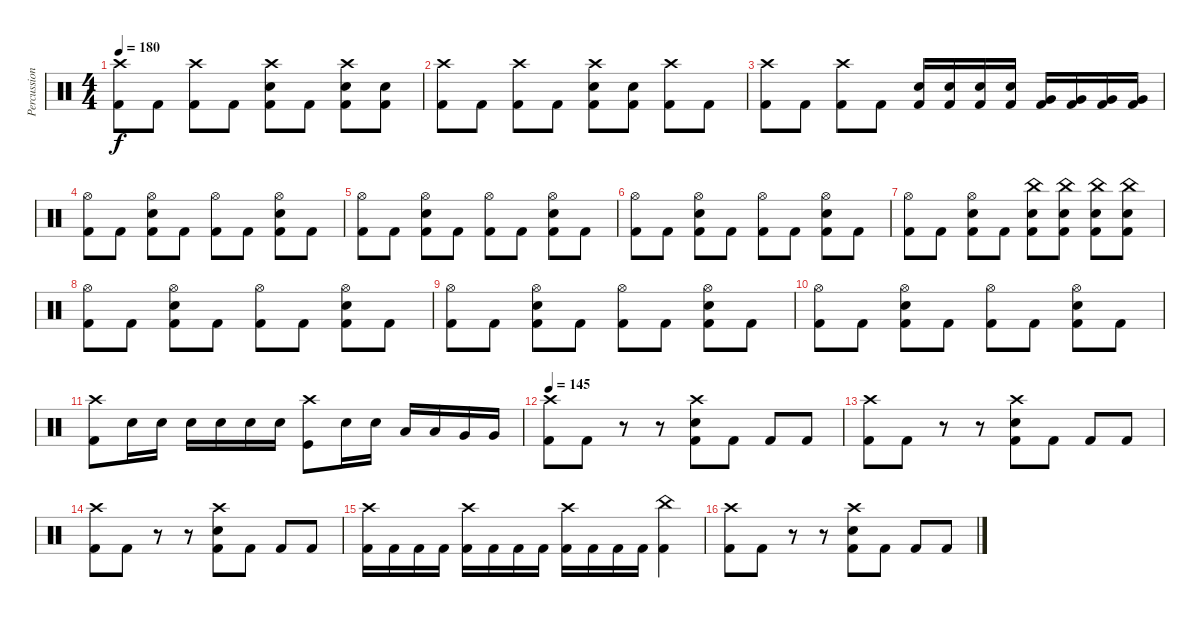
\track ("Percussion" "Percussion") {instrument percussion}
\staff {score}
\articulation defaults
\ts (4 4)
\tempo 180
\clef neutral
\ks c
("Crash high (hit)" "Kick (hit) 2").8{dy f} "Kick (hit) 2".8 ("Crash high (hit)" "Kick (hit) 2").8 "Kick (hit) 2".8 ("Crash high (hit)" "Electric Snare (hit)" "Kick (hit) 2").8 "Kick (hit) 2".8 ("Crash high (hit)" "Electric Snare (hit)" "Kick (hit) 2").8 ("Electric Snare (hit)" "Kick (hit) 2").8 |
("Crash high (hit)" "Kick (hit) 2").8 "Kick (hit) 2".8 ("Crash high (hit)" "Kick (hit) 2").8 "Kick (hit) 2".8 ("Crash high (hit)" "Electric Snare (hit)" "Kick (hit) 2").8 ("Electric Snare (hit)" "Kick (hit) 2").8 ("Crash high (hit)" "Kick (hit) 2").8 "Kick (hit) 2".8 |
("Crash high (hit)" "Kick (hit) 2").8 "Kick (hit) 2".8 ("Crash high (hit)" "Kick (hit) 2").8 "Kick (hit) 2".8 ("Electric Snare (hit)" "Kick (hit) 2").16 ("Electric Snare (hit)" "Kick (hit) 2").16 ("Electric Snare (hit)" "Kick (hit) 2").16 ("Electric Snare (hit)" "Kick (hit) 2").16 ("Very Low Tom (hit)" "Kick (hit) 2").16 ("Very Low Tom (hit)" "Kick (hit) 2").16 ("Very Low Tom (hit)" "Kick (hit) 2").16 ("Very Low Tom (hit)" "Kick (hit) 2").16 |
("Hi-Hat (open)" "Kick (hit) 2").8 "Kick (hit) 2".8 ("Hi-Hat (open)" "Electric Snare (hit)" "Kick (hit) 2").8 "Kick (hit) 2".8 ("Hi-Hat (open)" "Kick (hit) 2").8 "Kick (hit) 2".8 ("Hi-Hat (open)" "Electric Snare (hit)" "Kick (hit) 2").8 "Kick (hit) 2".8 |
("Hi-Hat (open)" "Kick (hit) 2").8 "Kick (hit) 2".8 ("Hi-Hat (open)" "Electric Snare (hit)" "Kick (hit) 2").8 "Kick (hit) 2".8 ("Hi-Hat (open)" "Kick (hit) 2").8 "Kick (hit) 2".8 ("Hi-Hat (open)" "Electric Snare (hit)" "Kick (hit) 2").8 "Kick (hit) 2".8 |
("Hi-Hat (open)" "Kick (hit) 2").8 "Kick (hit) 2".8 ("Hi-Hat (open)" "Electric Snare (hit)" "Kick (hit) 2").8 "Kick (hit) 2".8 ("Hi-Hat (open)" "Kick (hit) 2").8 "Kick (hit) 2".8 ("Hi-Hat (open)" "Electric Snare (hit)" "Kick (hit) 2").8 "Kick (hit) 2".8 |
("Hi-Hat (open)" "Kick (hit) 2").8 "Kick (hit) 2".8 ("Hi-Hat (open)" "Electric Snare (hit)" "Kick (hit) 2").8 "Kick (hit) 2".8 ("China (hit)" "Electric Snare (hit)" "Kick (hit) 2").8 ("China (hit)" "Electric Snare (hit)" "Kick (hit) 2").8 ("China (hit)" "Electric Snare (hit)" "Kick (hit) 2").8 ("China (hit)" "Electric Snare (hit)" "Kick (hit) 2").8 |
("Hi-Hat (open)" "Kick (hit) 2").8 "Kick (hit) 2".8 ("Hi-Hat (open)" "Electric Snare (hit)" "Kick (hit) 2").8 "Kick (hit) 2".8 ("Hi-Hat (open)" "Kick (hit) 2").8 "Kick (hit) 2".8 ("Hi-Hat (open)" "Electric Snare (hit)" "Kick (hit) 2").8 "Kick (hit) 2".8 |
("Hi-Hat (open)" "Kick (hit) 2").8 "Kick (hit) 2".8 ("Hi-Hat (open)" "Electric Snare (hit)" "Kick (hit) 2").8 "Kick (hit) 2".8 ("Hi-Hat (open)" "Kick (hit) 2").8 "Kick (hit) 2".8 ("Hi-Hat (open)" "Electric Snare (hit)" "Kick (hit) 2").8 "Kick (hit) 2".8 |
("Hi-Hat (open)" "Kick (hit) 2").8 "Kick (hit) 2".8 ("Hi-Hat (open)" "Electric Snare (hit)" "Kick (hit) 2").8 "Kick (hit) 2".8 ("Hi-Hat (open)" "Kick (hit) 2").8 "Kick (hit) 2".8 ("Hi-Hat (open)" "Electric Snare (hit)" "Kick (hit) 2").8 "Kick (hit) 2".8 |
("Crash high (hit)" "Kick (hit) 2").8 "Electric Snare (hit)".16 "Electric Snare (hit)".16 "Electric Snare (hit)".16 "Electric Snare (hit)".16 "Electric Snare (hit)".16 "Electric Snare (hit)".16 ("Crash high (hit)" "Kick (hit)").8 "Electric Snare (hit)".16 "Electric Snare (hit)".16 "Low Tom (hit)".16 "Low Tom (hit)".16 "Very Low Tom (hit)".16 "Very Low Tom (hit)".16 |
\tempo 145
("Crash high (hit)" "Kick (hit) 2").8 "Kick (hit) 2".8 r.8 r.8 ("Crash high (hit)" "Electric Snare (hit)" "Kick (hit) 2").8 "Kick (hit) 2".8 "Kick (hit) 2".8 "Kick (hit) 2".8 |
("Crash high (hit)" "Kick (hit) 2").8 "Kick (hit) 2".8 r.8 r.8 ("Crash high (hit)" "Electric Snare (hit)" "Kick (hit) 2").8 "Kick (hit) 2".8 "Kick (hit) 2".8 "Kick (hit) 2".8 |
("Crash high (hit)" "Kick (hit) 2").8 "Kick (hit) 2".8 r.8 r.8 ("Crash high (hit)" "Electric Snare (hit)" "Kick (hit) 2").8 "Kick (hit) 2".8 "Kick (hit) 2".8 "Kick (hit) 2".8 |
("Crash high (hit)" "Kick (hit) 2").16 "Kick (hit) 2".16 "Kick (hit) 2".16 "Kick (hit) 2".16 ("Crash high (hit)" "Kick (hit) 2").16 "Kick (hit) 2".16 "Kick (hit) 2".16 "Kick (hit) 2".16 ("Crash high (hit)" "Kick (hit) 2").16 "Kick (hit) 2".16 "Kick (hit) 2".16 "Kick (hit) 2".16 ("China (hit)" "Kick (hit) 2").4 |
("Crash high (hit)" "Kick (hit) 2").8 "Kick (hit) 2".8 r.8 r.8 ("Crash high (hit)" "Electric Snare (hit)" "Kick (hit) 2").8 "Kick (hit) 2".8 "Kick (hit) 2".8 "Kick (hit) 2".8
